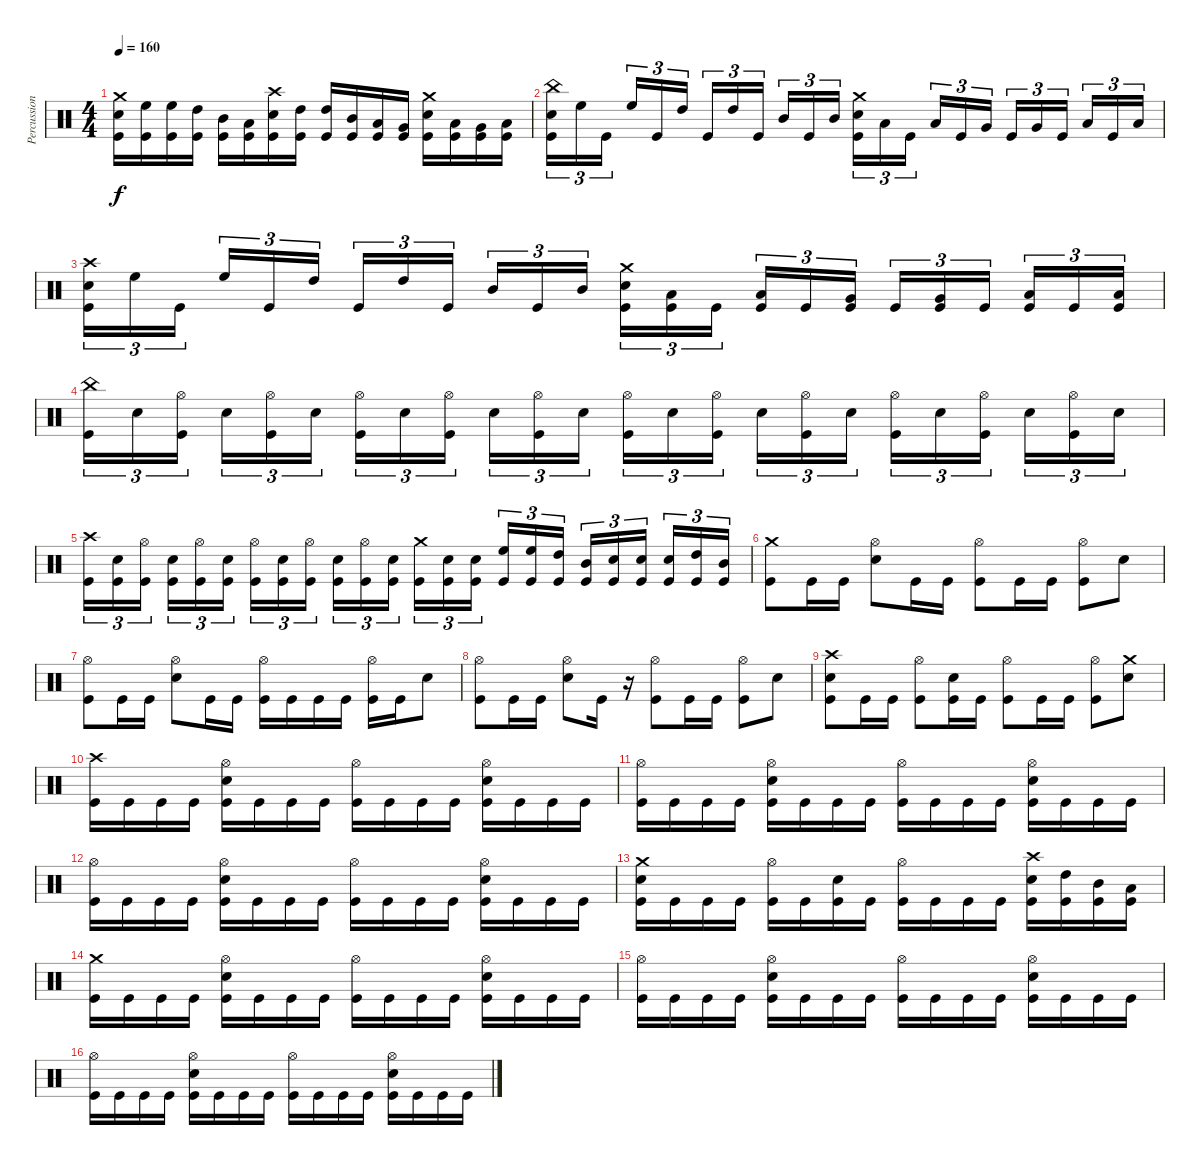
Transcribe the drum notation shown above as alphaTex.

\track ("Percussion" "Percussion") {instrument percussion}
\staff {score}
\articulation defaults
\ts (4 4)
\tempo 160
\clef neutral
\ks c
("Crash medium (hit)" "Snare (hit) 2" "Kick (hit)").16{dy f} ("High Floor Tom (hit)" "Kick (hit)").16 ("High Floor Tom (hit)" "Kick (hit)").16 ("High Tom (hit)" "Kick (hit)").16 ("Mid Tom (hit)" "Kick (hit)").16 ("Low Tom (hit)" "Kick (hit)").16 ("Crash high (hit)" "Snare (hit) 2" "Kick (hit)").16 ("High Tom (hit)" "Kick (hit)").16 ("High Tom (hit)" "Kick (hit)").16 ("Mid Tom (hit)" "Kick (hit)").16 ("Low Tom (hit)" "Kick (hit)").16 ("Very Low Tom (hit)" "Kick (hit)").16 ("Crash medium (hit)" "Snare (hit) 2" "Kick (hit)").16 ("Low Tom (hit)" "Kick (hit)").16 ("Very Low Tom (hit)" "Kick (hit)").16 ("Low Floor Tom (hit)" "Kick (hit)").16 |
("China (hit)" "Snare (hit) 2" "Kick (hit)").16{tu (3 2)} "High Floor Tom (hit)".16{tu (3 2)} "Kick (hit)".16{tu (3 2) beam splitsecondary} "High Floor Tom (hit)".16{tu (3 2)} "Kick (hit)".16{tu (3 2)} "High Tom (hit)".16{tu (3 2)} "Kick (hit)".16{tu (3 2)} "High Tom (hit)".16{tu (3 2)} "Kick (hit)".16{tu (3 2) beam splitsecondary} "Mid Tom (hit)".16{tu (3 2)} "Kick (hit)".16{tu (3 2)} "Mid Tom (hit)".16{tu (3 2)} ("Crash medium (hit)" "Snare (hit) 2" "Kick (hit)").16{tu (3 2)} "Low Tom (hit)".16{tu (3 2)} "Kick (hit)".16{tu (3 2) beam splitsecondary} "Low Tom (hit)".16{tu (3 2)} "Kick (hit)".16{tu (3 2)} "Very Low Tom (hit)".16{tu (3 2)} "Kick (hit)".16{tu (3 2)} "Very Low Tom (hit)".16{tu (3 2)} "Kick (hit)".16{tu (3 2) beam splitsecondary} "Low Floor Tom (hit)".16{tu (3 2)} "Kick (hit)".16{tu (3 2)} "Low Floor Tom (hit)".16{tu (3 2)} |
("Crash high (hit)" "Snare (hit) 2" "Kick (hit)").16{tu (3 2)} "High Floor Tom (hit)".16{tu (3 2)} "Kick (hit)".16{tu (3 2) beam splitsecondary} "High Floor Tom (hit)".16{tu (3 2)} "Kick (hit)".16{tu (3 2)} "High Tom (hit)".16{tu (3 2)} "Kick (hit)".16{tu (3 2)} "High Tom (hit)".16{tu (3 2)} "Kick (hit)".16{tu (3 2) beam splitsecondary} "Mid Tom (hit)".16{tu (3 2)} "Kick (hit)".16{tu (3 2)} "Mid Tom (hit)".16{tu (3 2)} ("Crash medium (hit)" "Snare (hit) 2" "Kick (hit)").16{tu (3 2)} ("Low Tom (hit)" "Kick (hit)").16{tu (3 2)} "Kick (hit)".16{tu (3 2) beam splitsecondary} ("Low Tom (hit)" "Kick (hit)").16{tu (3 2)} "Kick (hit)".16{tu (3 2)} ("Very Low Tom (hit)" "Kick (hit)").16{tu (3 2)} "Kick (hit)".16{tu (3 2)} ("Very Low Tom (hit)" "Kick (hit)").16{tu (3 2)} "Kick (hit)".16{tu (3 2) beam splitsecondary} ("Low Floor Tom (hit)" "Kick (hit)").16{tu (3 2)} "Kick (hit)".16{tu (3 2)} ("Low Floor Tom (hit)" "Kick (hit)").16{tu (3 2)} |
("China (hit)" "Kick (hit)").16{tu (3 2)} "Snare (hit) 2".16{tu (3 2)} ("Hi-Hat (open)" "Kick (hit)").16{tu (3 2) beam splitsecondary} "Snare (hit) 2".16{tu (3 2)} ("Hi-Hat (open)" "Kick (hit)").16{tu (3 2)} "Snare (hit) 2".16{tu (3 2)} ("Hi-Hat (open)" "Kick (hit)").16{tu (3 2)} "Snare (hit) 2".16{tu (3 2)} ("Hi-Hat (open)" "Kick (hit)").16{tu (3 2) beam splitsecondary} "Snare (hit) 2".16{tu (3 2)} ("Hi-Hat (open)" "Kick (hit)").16{tu (3 2)} "Snare (hit) 2".16{tu (3 2)} ("Hi-Hat (open)" "Kick (hit)").16{tu (3 2)} "Snare (hit) 2".16{tu (3 2)} ("Hi-Hat (open)" "Kick (hit)").16{tu (3 2) beam splitsecondary} "Snare (hit) 2".16{tu (3 2)} ("Hi-Hat (open)" "Kick (hit)").16{tu (3 2)} "Snare (hit) 2".16{tu (3 2)} ("Hi-Hat (open)" "Kick (hit)").16{tu (3 2)} "Snare (hit) 2".16{tu (3 2)} ("Hi-Hat (open)" "Kick (hit)").16{tu (3 2) beam splitsecondary} "Snare (hit) 2".16{tu (3 2)} ("Hi-Hat (open)" "Kick (hit)").16{tu (3 2)} "Snare (hit) 2".16{tu (3 2)} |
("Crash high (hit)" "Kick (hit)").16{tu (3 2)} ("Snare (hit) 2" "Kick (hit)").16{tu (3 2)} ("Hi-Hat (open)" "Kick (hit)").16{tu (3 2) beam splitsecondary} ("Snare (hit) 2" "Kick (hit)").16{tu (3 2)} ("Hi-Hat (open)" "Kick (hit)").16{tu (3 2)} ("Snare (hit) 2" "Kick (hit)").16{tu (3 2)} ("Hi-Hat (open)" "Kick (hit)").16{tu (3 2)} ("Snare (hit) 2" "Kick (hit)").16{tu (3 2)} ("Hi-Hat (open)" "Kick (hit)").16{tu (3 2) beam splitsecondary} ("Snare (hit) 2" "Kick (hit)").16{tu (3 2)} ("Hi-Hat (open)" "Kick (hit)").16{tu (3 2)} ("Snare (hit) 2" "Kick (hit)").16{tu (3 2)} ("Crash medium (hit)" "Kick (hit)").16{tu (3 2)} ("Snare (hit) 2" "Kick (hit)").16{tu (3 2)} ("Snare (hit) 2" "Kick (hit)").16{tu (3 2) beam splitsecondary} ("High Floor Tom (hit)" "Kick (hit)").16{tu (3 2)} ("High Floor Tom (hit)" "Kick (hit)").16{tu (3 2)} ("High Tom (hit)" "Kick (hit)").16{tu (3 2)} ("Mid Tom (hit)" "Kick (hit)").16{tu (3 2)} ("Snare (hit) 2" "Kick (hit)").16{tu (3 2)} ("Snare (hit) 2" "Kick (hit)").16{tu (3 2) beam splitsecondary} ("Snare (hit) 2" "Kick (hit)").16{tu (3 2)} ("High Tom (hit)" "Kick (hit)").16{tu (3 2)} ("Mid Tom (hit)" "Kick (hit)").16{tu (3 2)} |
("Crash medium (hit)" "Kick (hit)").8 "Kick (hit)".16 "Kick (hit)".16 ("Hi-Hat (open)" "Snare (hit) 2").8 "Kick (hit)".16 "Kick (hit)".16 ("Hi-Hat (open)" "Kick (hit)").8 "Kick (hit)".16 "Kick (hit)".16 ("Hi-Hat (open)" "Kick (hit)").8 "Snare (hit) 2".8 |
("Hi-Hat (open)" "Kick (hit)").8 "Kick (hit)".16 "Kick (hit)".16 ("Hi-Hat (open)" "Snare (hit) 2").8 "Kick (hit)".16 "Kick (hit)".16 ("Hi-Hat (open)" "Kick (hit)").16 "Kick (hit)".16 "Kick (hit)".16 "Kick (hit)".16 ("Hi-Hat (open)" "Kick (hit)").16 "Kick (hit)".16 "Snare (hit) 2".8 |
("Hi-Hat (open)" "Kick (hit)").8 "Kick (hit)".16 "Kick (hit)".16 ("Hi-Hat (open)" "Snare (hit) 2").8 "Kick (hit)".16 r.16 ("Hi-Hat (open)" "Kick (hit)").8 "Kick (hit)".16 "Kick (hit)".16 ("Hi-Hat (open)" "Kick (hit)").8 "Snare (hit) 2".8 |
("Crash high (hit)" "Snare (hit) 2" "Kick (hit)").8 "Kick (hit)".16 "Kick (hit)".16 ("Hi-Hat (open)" "Kick (hit)").8 ("Snare (hit) 2" "Kick (hit)").16 "Kick (hit)".16 ("Hi-Hat (open)" "Kick (hit)").8 "Kick (hit)".16 "Kick (hit)".16 ("Hi-Hat (open)" "Kick (hit)").8 ("Crash medium (hit)" "Snare (hit) 2").8 |
("Crash high (hit)" "Kick (hit)").16 "Kick (hit)".16 "Kick (hit)".16 "Kick (hit)".16 ("Hi-Hat (open)" "Snare (hit) 2" "Kick (hit)").16 "Kick (hit)".16 "Kick (hit)".16 "Kick (hit)".16 ("Hi-Hat (open)" "Kick (hit)").16 "Kick (hit)".16 "Kick (hit)".16 "Kick (hit)".16 ("Hi-Hat (open)" "Snare (hit) 2" "Kick (hit)").16 "Kick (hit)".16 "Kick (hit)".16 "Kick (hit)".16 |
("Hi-Hat (open)" "Kick (hit)").16 "Kick (hit)".16 "Kick (hit)".16 "Kick (hit)".16 ("Hi-Hat (open)" "Snare (hit) 2" "Kick (hit)").16 "Kick (hit)".16 "Kick (hit)".16 "Kick (hit)".16 ("Hi-Hat (open)" "Kick (hit)").16 "Kick (hit)".16 "Kick (hit)".16 "Kick (hit)".16 ("Hi-Hat (open)" "Snare (hit) 2" "Kick (hit)").16 "Kick (hit)".16 "Kick (hit)".16 "Kick (hit)".16 |
("Hi-Hat (open)" "Kick (hit)").16 "Kick (hit)".16 "Kick (hit)".16 "Kick (hit)".16 ("Hi-Hat (open)" "Snare (hit) 2" "Kick (hit)").16 "Kick (hit)".16 "Kick (hit)".16 "Kick (hit)".16 ("Hi-Hat (open)" "Kick (hit)").16 "Kick (hit)".16 "Kick (hit)".16 "Kick (hit)".16 ("Hi-Hat (open)" "Snare (hit) 2" "Kick (hit)").16 "Kick (hit)".16 "Kick (hit)".16 "Kick (hit)".16 |
("Crash medium (hit)" "Snare (hit) 2" "Kick (hit)").16 "Kick (hit)".16 "Kick (hit)".16 "Kick (hit)".16 ("Hi-Hat (open)" "Kick (hit)").16 "Kick (hit)".16 ("Snare (hit) 2" "Kick (hit)").16 "Kick (hit)".16 ("Hi-Hat (open)" "Kick (hit)").16 "Kick (hit)".16 "Kick (hit)".16 "Kick (hit)".16 ("Crash high (hit)" "Snare (hit) 2" "Kick (hit)").16 ("High Tom (hit)" "Kick (hit)").16 ("Mid Tom (hit)" "Kick (hit)").16 ("Low Tom (hit)" "Kick (hit)").16 |
("Crash medium (hit)" "Kick (hit)").16 "Kick (hit)".16 "Kick (hit)".16 "Kick (hit)".16 ("Hi-Hat (open)" "Snare (hit) 2" "Kick (hit)").16 "Kick (hit)".16 "Kick (hit)".16 "Kick (hit)".16 ("Hi-Hat (open)" "Kick (hit)").16 "Kick (hit)".16 "Kick (hit)".16 "Kick (hit)".16 ("Hi-Hat (open)" "Snare (hit) 2" "Kick (hit)").16 "Kick (hit)".16 "Kick (hit)".16 "Kick (hit)".16 |
("Hi-Hat (open)" "Kick (hit)").16 "Kick (hit)".16 "Kick (hit)".16 "Kick (hit)".16 ("Hi-Hat (open)" "Snare (hit) 2" "Kick (hit)").16 "Kick (hit)".16 "Kick (hit)".16 "Kick (hit)".16 ("Hi-Hat (open)" "Kick (hit)").16 "Kick (hit)".16 "Kick (hit)".16 "Kick (hit)".16 ("Hi-Hat (open)" "Snare (hit) 2" "Kick (hit)").16 "Kick (hit)".16 "Kick (hit)".16 "Kick (hit)".16 |
("Hi-Hat (open)" "Kick (hit)").16 "Kick (hit)".16 "Kick (hit)".16 "Kick (hit)".16 ("Hi-Hat (open)" "Snare (hit) 2" "Kick (hit)").16 "Kick (hit)".16 "Kick (hit)".16 "Kick (hit)".16 ("Hi-Hat (open)" "Kick (hit)").16 "Kick (hit)".16 "Kick (hit)".16 "Kick (hit)".16 ("Hi-Hat (open)" "Snare (hit) 2" "Kick (hit)").16 "Kick (hit)".16 "Kick (hit)".16 "Kick (hit)".16
